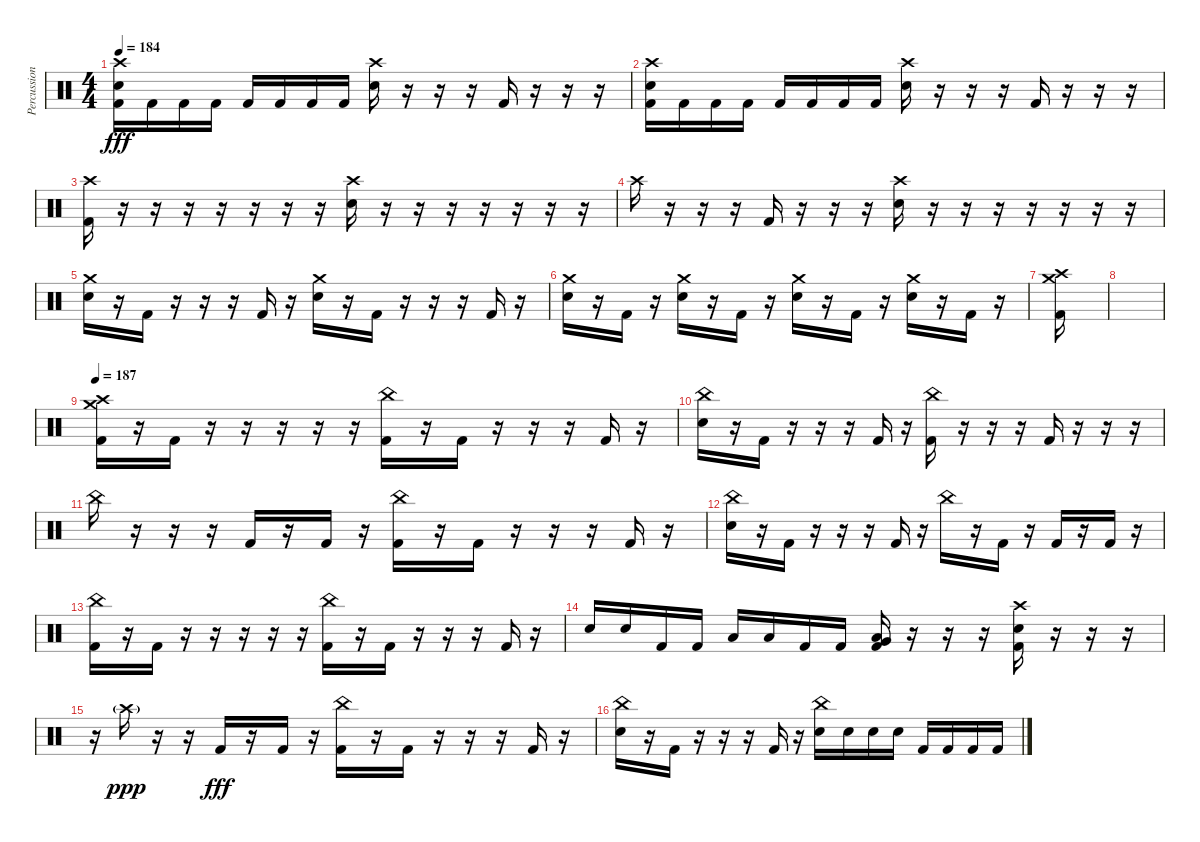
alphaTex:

\track ("Percussion" "Percussion") {instrument percussion}
\staff {score}
\articulation defaults
\ts (4 4)
\tempo 184
\clef neutral
\ks c
("Crash high (hit)" "Snare (hit) 2" "Kick (hit) 2").16{dy fff} "Kick (hit) 2".16 "Kick (hit) 2".16 "Kick (hit) 2".16 "Kick (hit) 2".16 "Kick (hit) 2".16 "Kick (hit) 2".16 "Kick (hit) 2".16 ("Crash high (hit)" "Snare (hit) 2").16 r.16 r.16 r.16 "Kick (hit) 2".16 r.16 r.16 r.16 |
("Crash high (hit)" "Snare (hit) 2" "Kick (hit) 2").16 "Kick (hit) 2".16 "Kick (hit) 2".16 "Kick (hit) 2".16 "Kick (hit) 2".16 "Kick (hit) 2".16 "Kick (hit) 2".16 "Kick (hit) 2".16 ("Crash high (hit)" "Snare (hit) 2").16 r.16 r.16 r.16 "Kick (hit) 2".16 r.16 r.16 r.16 |
("Crash high (hit)" "Kick (hit) 2").16 r.16 r.16 r.16 r.16 r.16 r.16 r.16 ("Crash high (hit)" "Snare (hit) 2").16 r.16 r.16 r.16 r.16 r.16 r.16 r.16 |
"Crash high (hit)".16 r.16 r.16 r.16 "Kick (hit) 2".16 r.16 r.16 r.16 ("Crash high (hit)" "Snare (hit) 2").16 r.16 r.16 r.16 r.16 r.16 r.16 r.16 |
("Crash medium (hit)" "Snare (hit) 2").16 r.16 "Kick (hit) 2".16 r.16 r.16 r.16 "Kick (hit) 2".16 r.16 ("Crash medium (hit)" "Snare (hit) 2").16 r.16 "Kick (hit) 2".16 r.16 r.16 r.16 "Kick (hit) 2".16 r.16 |
("Crash medium (hit)" "Snare (hit) 2").16 r.16 "Kick (hit) 2".16 r.16 ("Crash medium (hit)" "Snare (hit) 2").16 r.16 "Kick (hit) 2".16 r.16 ("Crash medium (hit)" "Snare (hit) 2").16 r.16 "Kick (hit) 2".16 r.16 ("Crash medium (hit)" "Snare (hit) 2").16 r.16 "Kick (hit) 2".16 r.16 |
("Crash high (hit)" "Crash medium (hit)" "Kick (hit) 2").16 |
|
\tempo 187
("Crash medium (hit)" "Crash high (hit)" "Kick (hit) 2").16 r.16 "Kick (hit) 2".16 r.16 r.16 r.16 r.16 r.16 ("China (hit)" "Kick (hit) 2").16 r.16 "Kick (hit) 2".16 r.16 r.16 r.16 "Kick (hit) 2".16 r.16 |
("China (hit)" "Snare (hit) 2").16 r.16 "Kick (hit) 2".16 r.16 r.16 r.16 "Kick (hit) 2".16 r.16 ("China (hit)" "Kick (hit) 2").16 r.16 r.16 r.16 "Kick (hit) 2".16 r.16 r.16 r.16 |
"China (hit)".16 r.16 r.16 r.16 "Kick (hit) 2".16 r.16 "Kick (hit) 2".16 r.16 ("China (hit)" "Kick (hit) 2").16 r.16 "Kick (hit) 2".16 r.16 r.16 r.16 "Kick (hit) 2".16 r.16 |
("China (hit)" "Snare (hit) 2").16 r.16 "Kick (hit) 2".16 r.16 r.16 r.16 "Kick (hit) 2".16 r.16 "China (hit)".16 r.16 "Kick (hit) 2".16 r.16 "Kick (hit) 2".16 r.16 "Kick (hit) 2".16 r.16 |
("China (hit)" "Kick (hit) 2").16 r.16 "Kick (hit) 2".16 r.16 r.16 r.16 r.16 r.16 ("China (hit)" "Kick (hit) 2").16 r.16 "Kick (hit) 2".16 r.16 r.16 r.16 "Kick (hit) 2".16 r.16 |
"Snare (hit) 2".16 "Snare (hit) 2".16 "Kick (hit) 2".16 "Kick (hit) 2".16 "Low Tom (hit)".16 "Low Tom (hit)".16 "Kick (hit) 2".16 "Kick (hit) 2".16 ("Very Low Tom (hit)" "Low Floor Tom (hit)" "Kick (hit) 2").16 r.16 r.16 r.16 ("Crash high (hit)" "Snare (hit) 2" "Kick (hit) 2").16 r.16 r.16 r.16 |
r.16 "Crash high (hit)"{g}.16{dy ppp} r.16 r.16 "Kick (hit) 2".16{dy fff} r.16 "Kick (hit) 2".16 r.16 ("China (hit)" "Kick (hit) 2").16 r.16 "Kick (hit) 2".16 r.16 r.16 r.16 "Kick (hit) 2".16 r.16 |
("China (hit)" "Snare (hit) 2").16 r.16 "Kick (hit) 2".16 r.16 r.16 r.16 "Kick (hit) 2".16 r.16 ("China (hit)" "Snare (hit) 2").16 "Snare (hit) 2".16 "Snare (hit) 2".16 "Snare (hit) 2".16 "Kick (hit) 2".16 "Kick (hit) 2".16 "Kick (hit) 2".16 "Kick (hit) 2".16
